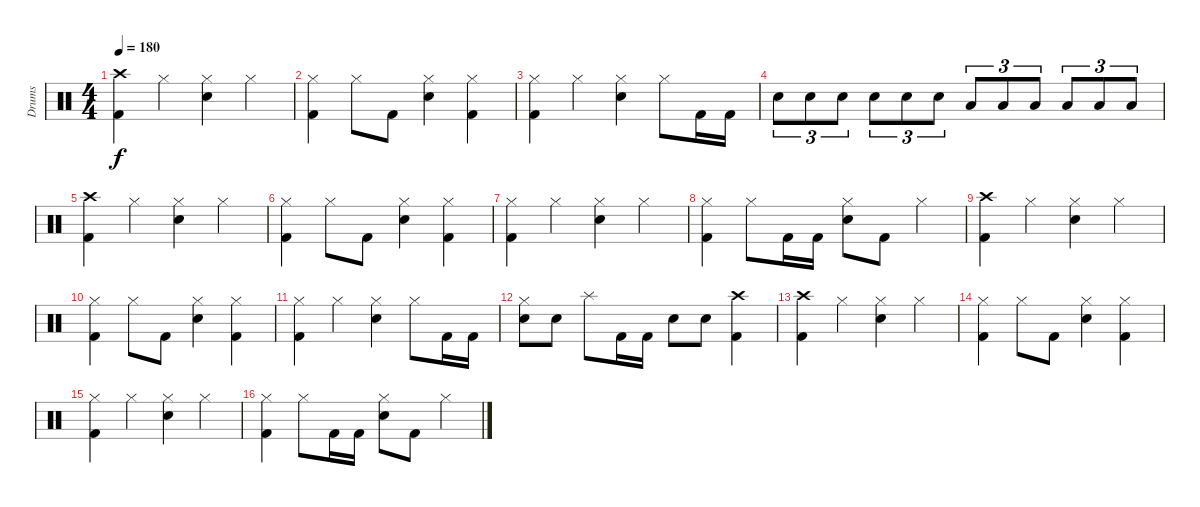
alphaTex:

\track ("Drums" "Drums") {instrument percussion}
\staff {score}
\articulation defaults
\ts (4 4)
\tempo 180
\clef neutral
\ks c
("Crash high (hit)" "Kick (hit) 2").4{dy f} "Hi-Hat (closed)".4 ("Hi-Hat (closed)" "Electric Snare (hit)").4 "Hi-Hat (closed)".4 |
("Hi-Hat (closed)" "Kick (hit) 2").4 "Hi-Hat (closed)".8 "Kick (hit) 2".8 ("Hi-Hat (closed)" "Electric Snare (hit)").4 ("Hi-Hat (closed)" "Kick (hit) 2").4 |
("Hi-Hat (closed)" "Kick (hit) 2").4 "Hi-Hat (closed)".4 ("Hi-Hat (closed)" "Electric Snare (hit)").4 "Hi-Hat (closed)".8 "Kick (hit) 2".16 "Kick (hit) 2".16 |
"Electric Snare (hit)".8{tu (3 2)} "Electric Snare (hit)".8{tu (3 2)} "Electric Snare (hit)".8{tu (3 2)} "Electric Snare (hit)".8{tu (3 2)} "Electric Snare (hit)".8{tu (3 2)} "Electric Snare (hit)".8{tu (3 2)} "Low Tom (hit)".8{tu (3 2)} "Low Tom (hit)".8{tu (3 2)} "Low Tom (hit)".8{tu (3 2)} "Low Tom (hit)".8{tu (3 2)} "Low Tom (hit)".8{tu (3 2)} "Low Tom (hit)".8{tu (3 2)} |
("Crash high (hit)" "Kick (hit) 2").4 "Hi-Hat (closed)".4 ("Hi-Hat (closed)" "Electric Snare (hit)").4 "Hi-Hat (closed)".4 |
("Hi-Hat (closed)" "Kick (hit) 2").4 "Hi-Hat (closed)".8 "Kick (hit) 2".8 ("Hi-Hat (closed)" "Electric Snare (hit)").4 ("Hi-Hat (closed)" "Kick (hit) 2").4 |
("Hi-Hat (closed)" "Kick (hit) 2").4 "Hi-Hat (closed)".4 ("Hi-Hat (closed)" "Electric Snare (hit)").4 "Hi-Hat (closed)".4 |
("Hi-Hat (closed)" "Kick (hit) 2").4 "Hi-Hat (closed)".8 "Kick (hit) 2".16 "Kick (hit) 2".16 ("Hi-Hat (closed)" "Electric Snare (hit)").8 "Kick (hit) 2".8 "Hi-Hat (closed)".4 |
("Crash high (hit)" "Kick (hit) 2").4 "Hi-Hat (closed)".4 ("Hi-Hat (closed)" "Electric Snare (hit)").4 "Hi-Hat (closed)".4 |
("Hi-Hat (closed)" "Kick (hit) 2").4 "Hi-Hat (closed)".8 "Kick (hit) 2".8 ("Hi-Hat (closed)" "Electric Snare (hit)").4 ("Hi-Hat (closed)" "Kick (hit) 2").4 |
("Hi-Hat (closed)" "Kick (hit) 2").4 "Hi-Hat (closed)".4 ("Hi-Hat (closed)" "Electric Snare (hit)").4 "Hi-Hat (closed)".8 "Kick (hit) 2".16 "Kick (hit) 2".16 |
("Hi-Hat (closed)" "Electric Snare (hit)").8 "Electric Snare (hit)".8 "Splash (hit)".8 "Kick (hit) 2".16 "Kick (hit) 2".16 "Electric Snare (hit)".8 "Electric Snare (hit)".8 ("Crash high (hit)" "Kick (hit) 2").4 |
("Crash high (hit)" "Kick (hit) 2").4 "Hi-Hat (closed)".4 ("Hi-Hat (closed)" "Electric Snare (hit)").4 "Hi-Hat (closed)".4 |
("Hi-Hat (closed)" "Kick (hit) 2").4 "Hi-Hat (closed)".8 "Kick (hit) 2".8 ("Hi-Hat (closed)" "Electric Snare (hit)").4 ("Hi-Hat (closed)" "Kick (hit) 2").4 |
("Hi-Hat (closed)" "Kick (hit) 2").4 "Hi-Hat (closed)".4 ("Hi-Hat (closed)" "Electric Snare (hit)").4 "Hi-Hat (closed)".4 |
("Hi-Hat (closed)" "Kick (hit) 2").4 "Hi-Hat (closed)".8 "Kick (hit) 2".16 "Kick (hit) 2".16 ("Hi-Hat (closed)" "Electric Snare (hit)").8 "Kick (hit) 2".8 "Hi-Hat (closed)".4
